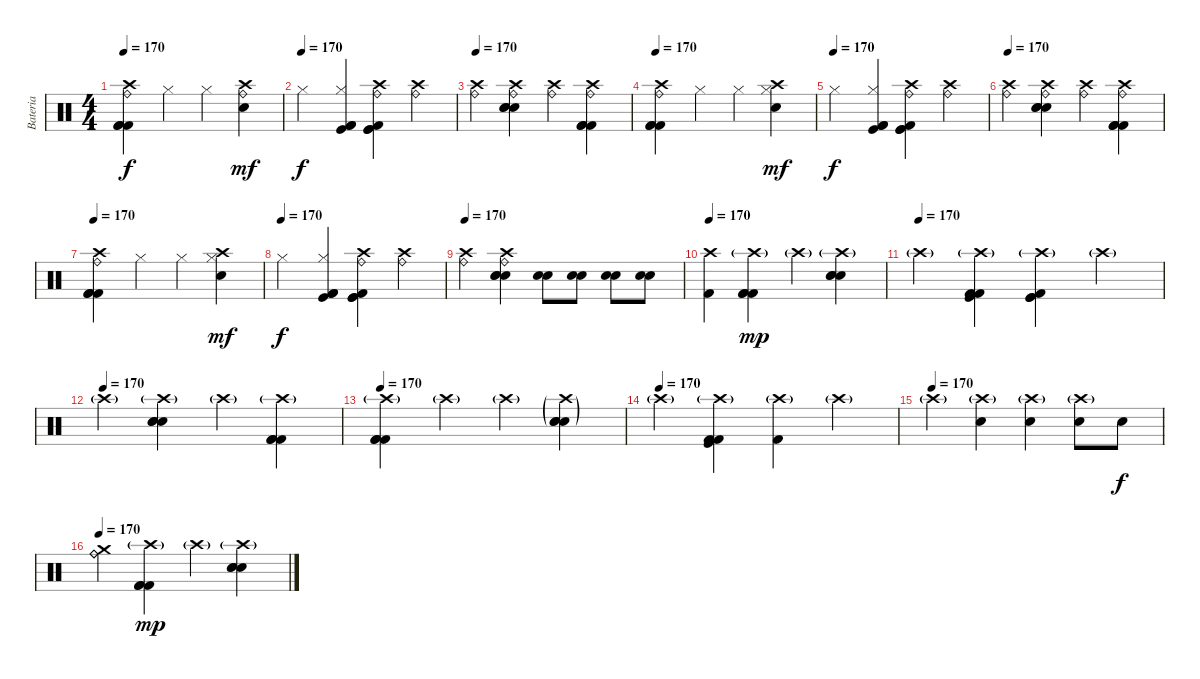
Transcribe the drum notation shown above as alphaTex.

\track ("Bateria" "Bateria") {instrument percussion}
\staff {score}
\articulation defaults
\ts (4 4)
\tempo 170
\clef neutral
\ks c
("Crash high (hit)" "Ride (bell)" "Kick (hit) 2" "Kick (hit) 2" "Kick (hit) 2").4{dy f} "Hi-Hat (closed)".4 "Hi-Hat (closed)".4 ("Crash high (hit)" "Snare (hit) 2" "Ride (bell)").4{dy mf} |
\tempo (170)
"Hi-Hat (closed)".4{dy f} ("Hi-Hat (closed)" "Kick (hit) 2" "Kick (hit) 2" "Kick (hit)").4 ("Crash high (hit)" "Ride (bell)" "Kick (hit)" "Kick (hit)" "Kick (hit) 2").4 ("Crash high (hit)" "Ride (bell)").4 |
\tempo 170
("Crash high (hit)" "Ride (bell)").4 ("Crash high (hit)" "Electric Snare (hit)" "Electric Snare (hit)" "Snare (hit) 2" "Ride (bell)").4 ("Crash high (hit)" "Ride (bell)").4 ("Crash high (hit)" "Kick (hit) 2" "Kick (hit) 2" "Kick (hit) 2" "Ride (bell)").4 |
\tempo 170
("Crash high (hit)" "Ride (bell)" "Kick (hit) 2" "Kick (hit) 2" "Kick (hit) 2").4 "Hi-Hat (closed)".4 "Hi-Hat (closed)".4 ("Crash high (hit)" "Snare (hit) 2" "Hi-Hat (closed)").4{dy mf} |
\tempo (170)
"Hi-Hat (closed)".4{dy f} ("Hi-Hat (closed)" "Kick (hit) 2" "Kick (hit) 2" "Kick (hit)").4 ("Crash high (hit)" "Ride (bell)" "Kick (hit)" "Kick (hit)" "Kick (hit) 2").4 ("Crash high (hit)" "Ride (bell)").4 |
\tempo 170
("Crash high (hit)" "Ride (bell)").4 ("Crash high (hit)" "Electric Snare (hit)" "Electric Snare (hit)" "Snare (hit) 2" "Ride (bell)").4 ("Crash high (hit)" "Ride (bell)").4 ("Crash high (hit)" "Kick (hit) 2" "Kick (hit) 2" "Kick (hit) 2" "Ride (bell)").4 |
\tempo 170
("Crash high (hit)" "Ride (bell)" "Kick (hit) 2" "Kick (hit) 2" "Kick (hit) 2").4 "Hi-Hat (closed)".4 "Hi-Hat (closed)".4 ("Crash high (hit)" "Snare (hit) 2" "Hi-Hat (closed)").4{dy mf} |
\tempo (170)
"Hi-Hat (closed)".4{dy f} ("Hi-Hat (closed)" "Kick (hit) 2" "Kick (hit) 2" "Kick (hit)").4 ("Crash high (hit)" "Ride (bell)" "Kick (hit)" "Kick (hit)" "Kick (hit) 2").4 ("Crash high (hit)" "Ride (bell)").4 |
\tempo 170
("Crash high (hit)" "Ride (bell)").4 ("Crash high (hit)" "Electric Snare (hit)" "Electric Snare (hit)" "Snare (hit) 2" "Ride (bell)").4 ("Electric Snare (hit)" "Snare (hit) 2").8 ("Electric Snare (hit)" "Snare (hit) 2").8 ("Electric Snare (hit)" "Snare (hit) 2").8 ("Electric Snare (hit)" "Snare (hit) 2").8 |
\tempo 170
("Crash high (hit)" "Kick (hit) 2").4 ("Crash high (hit)"{g} "Kick (hit) 2" "Kick (hit) 2" "Kick (hit) 2").4{dy mp} "Crash high (hit)"{g}.4 ("Crash high (hit)"{g} "Electric Snare (hit)" "Electric Snare (hit)" "Snare (hit) 2").4 |
\tempo (170)
"Crash high (hit)"{g}.4 ("Crash high (hit)"{g} "Kick (hit) 2" "Kick (hit) 2" "Kick (hit)").4 ("Crash high (hit)"{g} "Kick (hit)" "Kick (hit)" "Kick (hit) 2").4 "Crash high (hit)"{g}.4 |
\tempo (170)
"Crash high (hit)"{g}.4 ("Crash high (hit)"{g} "Electric Snare (hit)" "Electric Snare (hit)" "Snare (hit) 2").4 "Crash high (hit)"{g}.4 ("Crash high (hit)"{g} "Kick (hit) 2" "Kick (hit) 2" "Kick (hit) 2").4 |
\tempo 170
("Crash high (hit)"{g} "Kick (hit) 2" "Kick (hit) 2" "Kick (hit) 2").4 "Crash high (hit)"{g}.4 "Crash high (hit)"{g}.4 ("Electric Snare (hit)"{g} "Electric Snare (hit)" "Snare (hit) 2" "Crash high (hit)"{g}).4 |
\tempo (170)
"Crash high (hit)"{g}.4 ("Crash high (hit)"{g} "Kick (hit)" "Kick (hit) 2" "Kick (hit) 2").4 ("Kick (hit) 2" "Crash high (hit)"{g}).4 "Crash high (hit)"{g}.4 |
\tempo (170)
"Crash high (hit)"{g}.4 ("Crash high (hit)"{g} "Electric Snare (hit)").4 ("Crash high (hit)"{g} "Electric Snare (hit)").4 ("Crash high (hit)"{g} "Electric Snare (hit)").8 "Electric Snare (hit)".8{dy f} |
\tempo 170
("Crash medium (hit)" "Ride (bell)" "Ride (bell)").4 ("Crash high (hit)"{g} "Kick (hit) 2" "Kick (hit) 2" "Kick (hit) 2").4{dy mp} "Crash high (hit)"{g}.4 ("Crash high (hit)"{g} "Electric Snare (hit)" "Electric Snare (hit)" "Snare (hit) 2").4
